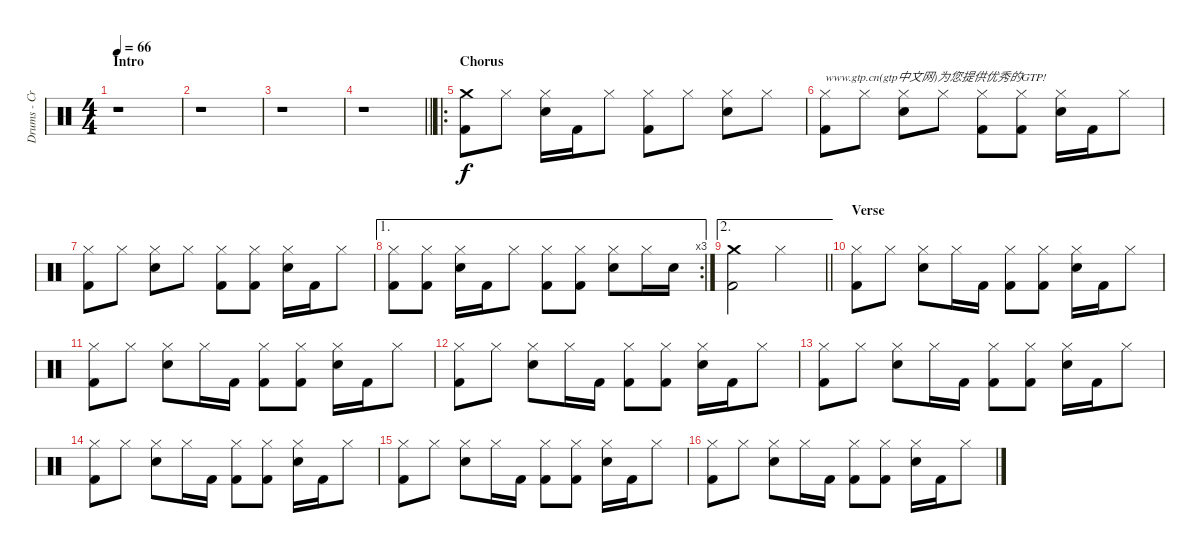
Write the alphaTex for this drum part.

\track ("Drums - Craig" "Drums - Cr") {instrument percussion}
\staff {score}
\articulation defaults
\ts (4 4)
\section ("" "Intro")
\tempo 66
\clef neutral
\ks c
r.1{dy f} |
r.1 |
r.1 |
\barLineRight lightlight
r.1 |
\ro
\section ("" "Chorus")
("Crash medium (hit)" "Kick (hit) 2").8 "Hi-Hat (closed)".8 ("Hi-Hat (closed)" "Snare (hit) 2").16 "Kick (hit) 2".16 "Hi-Hat (closed)".8 ("Hi-Hat (closed)" "Kick (hit) 2").8 "Hi-Hat (closed)".8 ("Hi-Hat (closed)" "Snare (hit) 2").8 "Hi-Hat (closed)".8 |
("Hi-Hat (closed)" "Kick (hit) 2").8{txt "www.gtp.cn(gtp中文网)为您提供优秀的GTP!"} "Hi-Hat (closed)".8 ("Hi-Hat (closed)" "Snare (hit) 2").8 "Hi-Hat (closed)".8 ("Hi-Hat (closed)" "Kick (hit) 2").8 ("Hi-Hat (closed)" "Kick (hit) 2").8 ("Hi-Hat (closed)" "Snare (hit) 2").16 "Kick (hit) 2".16 "Hi-Hat (closed)".8 |
("Hi-Hat (closed)" "Kick (hit) 2").8 "Hi-Hat (closed)".8 ("Hi-Hat (closed)" "Snare (hit) 2").8 "Hi-Hat (closed)".8 ("Hi-Hat (closed)" "Kick (hit) 2").8 ("Hi-Hat (closed)" "Kick (hit) 2").8 ("Hi-Hat (closed)" "Snare (hit) 2").16 "Kick (hit) 2".16 "Hi-Hat (closed)".8 |
\ae 1
\rc 3
("Hi-Hat (closed)" "Kick (hit) 2").8 ("Hi-Hat (closed)" "Kick (hit) 2").8 ("Hi-Hat (closed)" "Snare (hit) 2").16 "Kick (hit) 2".16 "Hi-Hat (closed)".8 ("Hi-Hat (closed)" "Kick (hit) 2").8 ("Hi-Hat (closed)" "Kick (hit) 2").8 ("Hi-Hat (closed)" "Snare (hit) 2").8 "Hi-Hat (closed)".16 "Snare (hit) 2".16 |
\ae 2
\barLineRight lightlight
("Crash medium (hit)" "Kick (hit) 2").2 "Hi-Hat (closed)".2 |
\section ("" "Verse")
("Hi-Hat (closed)" "Kick (hit) 2").8 "Hi-Hat (closed)".8 ("Hi-Hat (closed)" "Snare (hit) 2").8 "Hi-Hat (closed)".16 "Kick (hit) 2".16 ("Hi-Hat (closed)" "Kick (hit) 2").8 ("Hi-Hat (closed)" "Kick (hit) 2").8 ("Hi-Hat (closed)" "Snare (hit) 2").16 "Kick (hit) 2".16 "Hi-Hat (closed)".8 |
("Hi-Hat (closed)" "Kick (hit) 2").8 "Hi-Hat (closed)".8 ("Hi-Hat (closed)" "Snare (hit) 2").8 "Hi-Hat (closed)".16 "Kick (hit) 2".16 ("Hi-Hat (closed)" "Kick (hit) 2").8 ("Hi-Hat (closed)" "Kick (hit) 2").8 ("Hi-Hat (closed)" "Snare (hit) 2").16 "Kick (hit) 2".16 "Hi-Hat (closed)".8 |
("Hi-Hat (closed)" "Kick (hit) 2").8 "Hi-Hat (closed)".8 ("Hi-Hat (closed)" "Snare (hit) 2").8 "Hi-Hat (closed)".16 "Kick (hit) 2".16 ("Hi-Hat (closed)" "Kick (hit) 2").8 ("Hi-Hat (closed)" "Kick (hit) 2").8 ("Hi-Hat (closed)" "Snare (hit) 2").16 "Kick (hit) 2".16 "Hi-Hat (closed)".8 |
("Hi-Hat (closed)" "Kick (hit) 2").8 "Hi-Hat (closed)".8 ("Hi-Hat (closed)" "Snare (hit) 2").8 "Hi-Hat (closed)".16 "Kick (hit) 2".16 ("Hi-Hat (closed)" "Kick (hit) 2").8 ("Hi-Hat (closed)" "Kick (hit) 2").8 ("Hi-Hat (closed)" "Snare (hit) 2").16 "Kick (hit) 2".16 "Hi-Hat (closed)".8 |
("Hi-Hat (closed)" "Kick (hit) 2").8 "Hi-Hat (closed)".8 ("Hi-Hat (closed)" "Snare (hit) 2").8 "Hi-Hat (closed)".16 "Kick (hit) 2".16 ("Hi-Hat (closed)" "Kick (hit) 2").8 ("Hi-Hat (closed)" "Kick (hit) 2").8 ("Hi-Hat (closed)" "Snare (hit) 2").16 "Kick (hit) 2".16 "Hi-Hat (closed)".8 |
("Hi-Hat (closed)" "Kick (hit) 2").8 "Hi-Hat (closed)".8 ("Hi-Hat (closed)" "Snare (hit) 2").8 "Hi-Hat (closed)".16 "Kick (hit) 2".16 ("Hi-Hat (closed)" "Kick (hit) 2").8 ("Hi-Hat (closed)" "Kick (hit) 2").8 ("Hi-Hat (closed)" "Snare (hit) 2").16 "Kick (hit) 2".16 "Hi-Hat (closed)".8 |
("Hi-Hat (closed)" "Kick (hit) 2").8 "Hi-Hat (closed)".8 ("Hi-Hat (closed)" "Snare (hit) 2").8 "Hi-Hat (closed)".16 "Kick (hit) 2".16 ("Hi-Hat (closed)" "Kick (hit) 2").8 ("Hi-Hat (closed)" "Kick (hit) 2").8 ("Hi-Hat (closed)" "Snare (hit) 2").16 "Kick (hit) 2".16 "Hi-Hat (closed)".8
